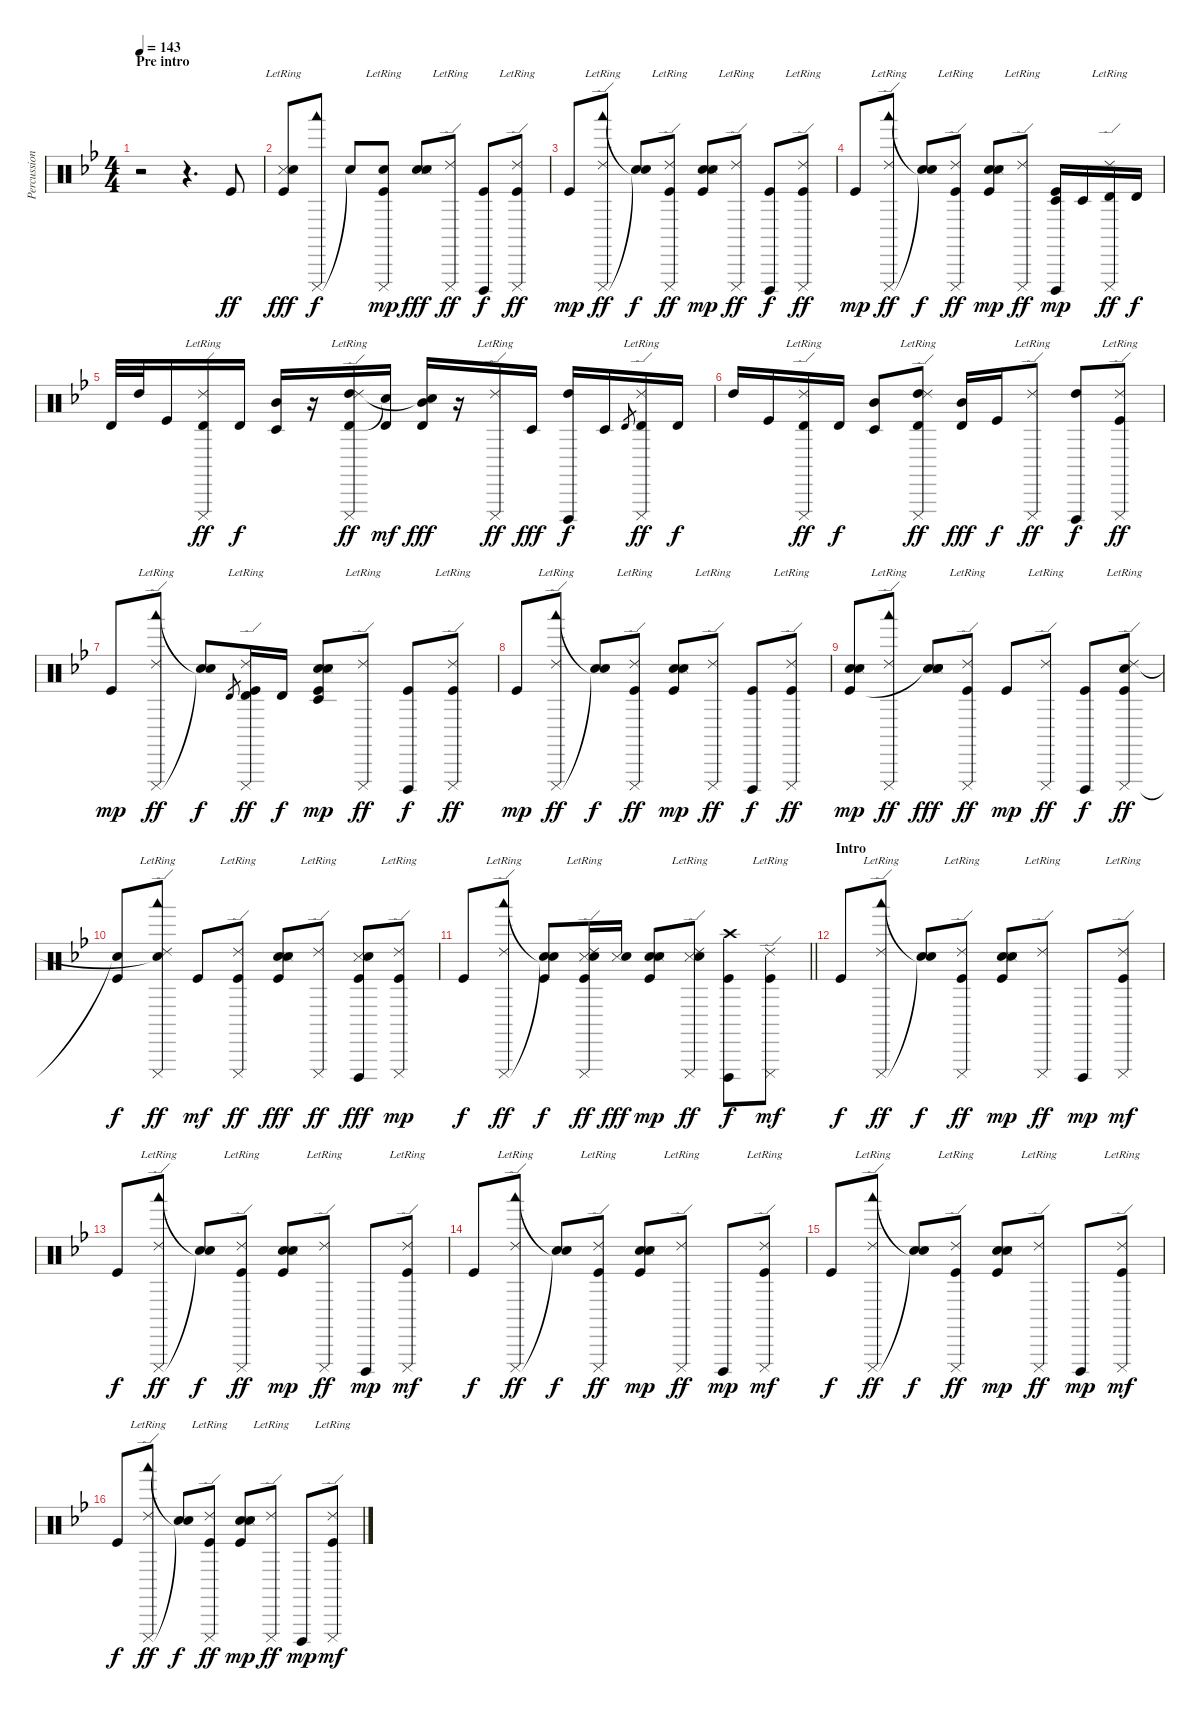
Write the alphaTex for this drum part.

\track ("Percussion" "Percussion") {instrument percussion}
\staff {score}
\articulation defaults
\ts (4 4)
\section ("" "Pre intro")
\tempo 143
\clef neutral
\ks gminor
r.2{dy ff} r.4{d} "Kick (hit)".8 |
("Snare (side stick) 3" "Electric Snare (hit)"{lr} "Kick (hit)").8{dy fff} ("Cuica (mute)" "Woodblock low (hit)").8{dy f} "Snare (hit)"{t}.8 ("Cuica (mute)" "Electric Snare (hit)"{lr} "Kick (hit)").8{dy mp} ("Snare (hit) 2" "Snare (side stick) 3" "Snare (hit) 2").8{dy fff} ("Cuica (mute)" "Ride (edge) 2"{lr}).8{dy ff} ("Cuica (open)" "Kick (hit)").8{dy f} ("Cuica (mute)" "Ride (edge) 2"{lr} "Kick (hit)").8{dy ff} |
"Kick (hit)".8{dy mp} ("Cuica (mute)" "Woodblock low (hit)" "Ride (edge) 2"{lr}).8{dy ff} ("Snare (hit)"{t} "Snare (hit)"{t}).8{dy f} ("Cuica (mute)" "Ride (edge) 2"{lr} "Kick (hit)").8{dy ff} ("Snare (hit) 2" "Snare (side stick) 3" "Snare (hit) 2" "Kick (hit)").8{dy mp} ("Cuica (mute)" "Ride (edge) 2"{lr}).8{dy ff} ("Cuica (open)" "Kick (hit)").8{dy f} ("Cuica (mute)" "Ride (edge) 2"{lr} "Kick (hit)").8{dy ff} |
"Kick (hit)".8{dy mp} ("Cuica (mute)" "Woodblock low (hit)" "Ride (edge) 2"{lr}).8{dy ff} ("Snare (hit)"{t} "Snare (hit)"{t}).8{dy f} ("Cuica (mute)" "Ride (edge) 2"{lr} "Kick (hit)").8{dy ff} ("Snare (hit) 2" "Snare (side stick) 3" "Snare (hit) 2" "Kick (hit)").8{dy mp} ("Cuica (mute)" "Ride (edge) 2"{lr}).8{dy ff} ("Cuica (open)" "Timbale low (hit)" "Kick (hit)").16{dy mp} "Timbale low (hit)".16 ("Cuica (mute)" "Timbale high (hit)" "Ride (edge) 2"{lr}).16{dy ff} "Timbale high (hit)".16{dy f} |
"Timbale high (hit)".32 "High Tom (hit)".32 "Kick (hit)".16 ("Cuica (mute)" "Timbale high (hit)" "Ride (edge) 2"{lr}).16{dy ff} "Timbale high (hit)".16{dy f} ("Timbale low (hit)" "Mid Tom (hit)").16 r.16 ("Cuica (mute)" "Timbale high (hit)" "High Tom (hit)" "Ride (edge) 2"{lr}).16{dy ff} ("Timbale high (hit)" "Snare (hit)"{t}).16{dy mf} ("Timbale high (hit)" "Mid Tom (hit)" "Snare (hit)"{t}).16{dy fff} r.16 ("Cuica (mute)" "Ride (edge) 2"{lr}).16{dy ff} "Timbale low (hit)".16{dy fff} ("Cuica (open)" "High Tom (hit)").16{dy f} "Timbale low (hit)".16 "Timbale high (hit)".8{gr} ("Cuica (mute)" "Timbale high (hit)" "Ride (edge) 2"{lr}).16{dy ff} "Timbale high (hit)".16{dy f} |
"High Tom (hit)".16 "Kick (hit)".16 ("Cuica (mute)" "Timbale high (hit)" "Ride (edge) 2"{lr}).16{dy ff} "Timbale high (hit)".16{dy f} ("Timbale low (hit)" "Mid Tom (hit)").8 ("Cuica (mute)" "Timbale high (hit)" "High Tom (hit)" "Ride (edge) 2"{lr}).8{dy ff} ("Timbale high (hit)" "Mid Tom (hit)").16{dy fff} "Kick (hit)".16{dy f} ("Cuica (mute)" "Ride (edge) 2"{lr}).8{dy ff} ("Cuica (open)" "High Tom (hit)").8{dy f} ("Cuica (mute)" "Ride (edge) 2"{lr} "Kick (hit)").8{dy ff} |
"Kick (hit)".8{dy mp} ("Cuica (mute)" "Woodblock low (hit)" "Ride (edge) 2"{lr}).8{dy ff} ("Snare (hit)"{t} "Snare (hit)"{t}).8{dy f} "Timbale high (hit)".8{gr} ("Cuica (mute)" "Timbale high (hit)" "Ride (edge) 2"{lr} "Kick (hit)").16{dy ff} "Timbale high (hit)".16{dy f} ("Snare (hit) 2" "Snare (side stick) 3" "Snare (hit) 2" "Timbale low (hit)" "Kick (hit)").8{dy mp} ("Cuica (mute)" "Ride (edge) 2"{lr}).8{dy ff} ("Cuica (open)" "Kick (hit)").8{dy f} ("Cuica (mute)" "Ride (edge) 2"{lr} "Kick (hit)").8{dy ff} |
"Kick (hit)".8{dy mp} ("Cuica (mute)" "Woodblock low (hit)" "Ride (edge) 2"{lr}).8{dy ff} ("Snare (hit)"{t} "Snare (hit)"{t}).8{dy f} ("Cuica (mute)" "Ride (edge) 2"{lr} "Kick (hit)").8{dy ff} ("Snare (hit) 2" "Snare (side stick) 3" "Snare (hit) 2" "Kick (hit)").8{dy mp} ("Cuica (mute)" "Ride (edge) 2"{lr}).8{dy ff} ("Cuica (open)" "Kick (hit)").8{dy f} ("Cuica (mute)" "Ride (edge) 2"{lr} "Kick (hit)").8{dy ff} |
("Snare (hit) 2" "Snare (side stick) 3" "Snare (hit) 2" "Kick (hit)").8{dy mp} ("Cuica (mute)" "Woodblock low (hit)" "Ride (edge) 2"{lr}).8{dy ff} ("Snare (hit) 2" "Snare (side stick) 3" "Snare (hit) 2" "Snare (hit)"{t}).8{dy fff} ("Cuica (mute)" "Ride (edge) 2"{lr} "Kick (hit)").8{dy ff} "Kick (hit)".8{dy mp} ("Cuica (mute)" "Ride (edge) 2"{lr}).8{dy ff} ("Cuica (open)" "Kick (hit)").8{dy f} ("Cuica (mute)" "Electric Snare (hit)"{lr} "Ride (edge) 2"{lr} "Kick (hit)").8{dy ff} |
("Snare (hit)"{t} "Kick (hit)").8{dy f} ("Cuica (mute)" "Woodblock low (hit)" "Snare (hit)"{t} "Ride (edge) 2"{lr}).8{dy ff} "Kick (hit)".8{dy mf} ("Cuica (mute)" "Ride (edge) 2"{lr} "Kick (hit)").8{dy ff} ("Snare (hit) 2" "Snare (side stick) 3" "Snare (hit) 2" "Kick (hit)").8{dy fff} ("Cuica (mute)" "Ride (edge) 2"{lr}).8{dy ff} ("Cuica (open)" "Snare (side stick) 3" "Snare (hit) 2" "Kick (hit)").8{dy fff} ("Cuica (mute)" "Ride (edge) 2"{lr} "Kick (hit)").8{dy mp} |
\barLineRight lightlight "Kick (hit)".8{dy f}
("Cuica (mute)" "Woodblock low (hit)" "Ride (edge) 2"{lr}).8{dy ff} ("Snare (hit)"{t} "Snare (hit)"{t} "Kick (hit)").8{dy f} ("Cuica (mute)" "Snare (side stick) 3" "Snare (hit) 2" "Ride (edge) 2"{lr} "Kick (hit)").16{dy ff} ("Snare (side stick) 3" "Snare (hit) 2").16{dy fff} ("Snare (hit) 2" "Snare (side stick) 3" "Snare (hit) 2" "Kick (hit)").8{dy mp} ("Cuica (mute)" "Snare (side stick) 3" "Snare (hit) 2" "Ride (edge) 2"{lr}).8{dy ff} ("Cuica (open)" "Crash high (hit)" "Kick (hit)").8{dy f} ("Cuica (mute)" "Ride (edge) 2"{lr} "Kick (hit)").8{dy mf} |
\section ("" "Intro")
"Kick (hit)".8{dy f} ("Cuica (mute)" "Woodblock low (hit)" "Ride (edge) 2"{lr}).8{dy ff} ("Snare (hit)"{t} "Snare (hit)"{t}).8{dy f} ("Cuica (mute)" "Ride (edge) 2"{lr} "Kick (hit)").8{dy ff} ("Snare (hit) 2" "Snare (side stick) 3" "Snare (hit) 2" "Kick (hit)").8{dy mp} ("Cuica (mute)" "Ride (edge) 2"{lr}).8{dy ff} "Cuica (open)".8{dy mp} ("Cuica (mute)" "Ride (edge) 2"{lr} "Kick (hit)").8{dy mf} |
"Kick (hit)".8{dy f} ("Cuica (mute)" "Woodblock low (hit)" "Ride (edge) 2"{lr}).8{dy ff} ("Snare (hit)"{t} "Snare (hit)"{t}).8{dy f} ("Cuica (mute)" "Ride (edge) 2"{lr} "Kick (hit)").8{dy ff} ("Snare (hit) 2" "Snare (side stick) 3" "Snare (hit) 2" "Kick (hit)").8{dy mp} ("Cuica (mute)" "Ride (edge) 2"{lr}).8{dy ff} "Cuica (open)".8{dy mp} ("Cuica (mute)" "Ride (edge) 2"{lr} "Kick (hit)").8{dy mf} |
"Kick (hit)".8{dy f} ("Cuica (mute)" "Woodblock low (hit)" "Ride (edge) 2"{lr}).8{dy ff} ("Snare (hit)"{t} "Snare (hit)"{t}).8{dy f} ("Cuica (mute)" "Ride (edge) 2"{lr} "Kick (hit)").8{dy ff} ("Snare (hit) 2" "Snare (side stick) 3" "Snare (hit) 2" "Kick (hit)").8{dy mp} ("Cuica (mute)" "Ride (edge) 2"{lr}).8{dy ff} "Cuica (open)".8{dy mp} ("Cuica (mute)" "Ride (edge) 2"{lr} "Kick (hit)").8{dy mf} |
"Kick (hit)".8{dy f} ("Cuica (mute)" "Woodblock low (hit)" "Ride (edge) 2"{lr}).8{dy ff} ("Snare (hit)"{t} "Snare (hit)"{t}).8{dy f} ("Cuica (mute)" "Ride (edge) 2"{lr} "Kick (hit)").8{dy ff} ("Snare (hit) 2" "Snare (side stick) 3" "Snare (hit) 2" "Kick (hit)").8{dy mp} ("Cuica (mute)" "Ride (edge) 2"{lr}).8{dy ff} "Cuica (open)".8{dy mp} ("Cuica (mute)" "Ride (edge) 2"{lr} "Kick (hit)").8{dy mf} |
"Kick (hit)".8{dy f} ("Cuica (mute)" "Woodblock low (hit)" "Ride (edge) 2"{lr}).8{dy ff} ("Snare (hit)"{t} "Snare (hit)"{t}).8{dy f} ("Cuica (mute)" "Ride (edge) 2"{lr} "Kick (hit)").8{dy ff} ("Snare (hit) 2" "Snare (side stick) 3" "Snare (hit) 2" "Kick (hit)").8{dy mp} ("Cuica (mute)" "Ride (edge) 2"{lr}).8{dy ff} "Cuica (open)".8{dy mp} ("Cuica (mute)" "Ride (edge) 2"{lr} "Kick (hit)").8{dy mf}
